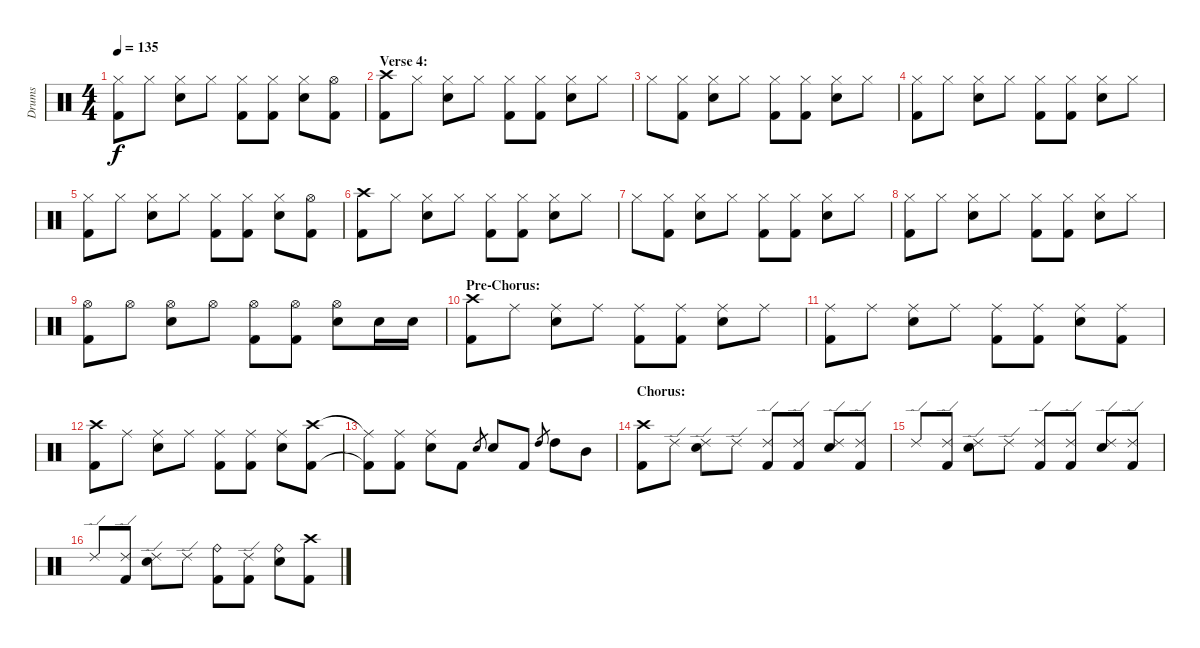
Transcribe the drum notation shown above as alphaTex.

\track ("Drums" "Drums") {instrument percussion}
\staff {score}
\articulation defaults
\ts (4 4)
\tempo 135
\clef neutral
\ks c
("Hi-Hat (closed)" "Kick (hit) 2").8{dy f} "Hi-Hat (closed)".8 ("Hi-Hat (closed)" "Electric Snare (hit)").8 "Hi-Hat (closed)".8 ("Hi-Hat (closed)" "Kick (hit) 2").8 ("Hi-Hat (closed)" "Kick (hit) 2").8 ("Hi-Hat (closed)" "Electric Snare (hit)").8 ("Hi-Hat (open)" "Kick (hit) 2").8 |
\section ("" "Verse 4:")
("Crash high (hit)" "Kick (hit) 2").8 "Hi-Hat (closed)".8 ("Hi-Hat (closed)" "Electric Snare (hit)").8 "Hi-Hat (closed)".8 ("Hi-Hat (closed)" "Kick (hit) 2").8 ("Hi-Hat (closed)" "Kick (hit) 2").8 ("Hi-Hat (closed)" "Electric Snare (hit)").8 "Hi-Hat (closed)".8 |
"Hi-Hat (closed)".8 ("Hi-Hat (closed)" "Kick (hit) 2").8 ("Hi-Hat (closed)" "Electric Snare (hit)").8 "Hi-Hat (closed)".8 ("Hi-Hat (closed)" "Kick (hit) 2").8 ("Hi-Hat (closed)" "Kick (hit) 2").8 ("Hi-Hat (closed)" "Electric Snare (hit)").8 "Hi-Hat (closed)".8 |
("Hi-Hat (closed)" "Kick (hit) 2").8 "Hi-Hat (closed)".8 ("Hi-Hat (closed)" "Electric Snare (hit)").8 "Hi-Hat (closed)".8 ("Hi-Hat (closed)" "Kick (hit) 2").8 ("Hi-Hat (closed)" "Kick (hit) 2").8 ("Hi-Hat (closed)" "Electric Snare (hit)").8 "Hi-Hat (closed)".8 |
("Hi-Hat (closed)" "Kick (hit) 2").8 "Hi-Hat (closed)".8 ("Hi-Hat (closed)" "Electric Snare (hit)").8 "Hi-Hat (closed)".8 ("Hi-Hat (closed)" "Kick (hit) 2").8 ("Hi-Hat (closed)" "Kick (hit) 2").8 ("Hi-Hat (closed)" "Electric Snare (hit)").8 ("Hi-Hat (open)" "Kick (hit) 2").8 |
("Crash high (hit)" "Kick (hit) 2").8 "Hi-Hat (closed)".8 ("Hi-Hat (closed)" "Electric Snare (hit)").8 "Hi-Hat (closed)".8 ("Hi-Hat (closed)" "Kick (hit) 2").8 ("Hi-Hat (closed)" "Kick (hit) 2").8 ("Hi-Hat (closed)" "Electric Snare (hit)").8 "Hi-Hat (closed)".8 |
"Hi-Hat (closed)".8 ("Hi-Hat (closed)" "Kick (hit) 2").8 ("Hi-Hat (closed)" "Electric Snare (hit)").8 "Hi-Hat (closed)".8 ("Hi-Hat (closed)" "Kick (hit) 2").8 ("Hi-Hat (closed)" "Kick (hit) 2").8 ("Hi-Hat (closed)" "Electric Snare (hit)").8 "Hi-Hat (closed)".8 |
("Hi-Hat (closed)" "Kick (hit) 2").8 "Hi-Hat (closed)".8 ("Hi-Hat (closed)" "Electric Snare (hit)").8 "Hi-Hat (closed)".8 ("Hi-Hat (closed)" "Kick (hit) 2").8 ("Hi-Hat (closed)" "Kick (hit) 2").8 ("Hi-Hat (closed)" "Electric Snare (hit)").8 "Hi-Hat (closed)".8 |
("Hi-Hat (open)" "Kick (hit) 2").8 "Hi-Hat (open)".8 ("Hi-Hat (open)" "Electric Snare (hit)").8 "Hi-Hat (open)".8 ("Hi-Hat (open)" "Kick (hit) 2").8 ("Hi-Hat (open)" "Kick (hit) 2").8 ("Hi-Hat (open)" "Electric Snare (hit)").8 "Electric Snare (hit)".16 "Electric Snare (hit)".16 |
\section ("" "Pre-Chorus:")
("Crash high (hit)" "Kick (hit) 2").8 "Ride (middle)".8 ("Ride (middle)" "Electric Snare (hit)").8 "Ride (middle)".8 ("Ride (middle)" "Kick (hit) 2").8 ("Ride (middle)" "Kick (hit) 2").8 ("Ride (middle)" "Electric Snare (hit)").8 "Ride (middle)".8 |
("Ride (middle)" "Kick (hit) 2").8 "Ride (middle)".8 ("Ride (middle)" "Electric Snare (hit)").8 "Ride (middle)".8 ("Ride (middle)" "Kick (hit) 2").8 ("Ride (middle)" "Kick (hit) 2").8 ("Ride (middle)" "Electric Snare (hit)").8 ("Ride (middle)" "Kick (hit) 2").8 |
("Crash high (hit)" "Kick (hit) 2").8 "Ride (middle)".8 ("Ride (middle)" "Electric Snare (hit)").8 "Ride (middle)".8 ("Ride (middle)" "Kick (hit) 2").8 ("Ride (middle)" "Kick (hit) 2").8 ("Ride (middle)" "Electric Snare (hit)").8 ("Crash high (hit)" "Kick (hit) 2").8 |
("Ride (middle)"{t} "Kick (hit) 2"{t}).8 ("Ride (middle)" "Kick (hit) 2").8 ("Ride (middle)" "Electric Snare (hit)").8 "Kick (hit) 2".8 "Electric Snare (hit)".8{gr} "Electric Snare (hit)".8 "Kick (hit) 2".8 "High Tom (hit)".8{gr} "High Tom (hit)".8 "Mid Tom (hit)".8 |
\section ("" "Chorus:")
("Crash high (hit)" "Kick (hit) 2").8 "Ride (edge) 2".8 ("Ride (edge) 2" "Electric Snare (hit)").8 "Ride (edge) 2".8 ("Ride (edge) 2" "Kick (hit) 2").8 ("Ride (edge) 2" "Kick (hit) 2").8 ("Ride (edge) 2" "Electric Snare (hit)").8 ("Ride (edge) 2" "Kick (hit) 2").8 |
"Ride (edge) 2".8 ("Ride (edge) 2" "Kick (hit) 2").8 ("Ride (edge) 2" "Electric Snare (hit)").8 "Ride (edge) 2".8 ("Ride (edge) 2" "Kick (hit) 2").8 ("Ride (edge) 2" "Kick (hit) 2").8 ("Ride (edge) 2" "Electric Snare (hit)").8 ("Ride (edge) 2" "Kick (hit) 2").8 |
"Ride (edge) 2".8 ("Ride (edge) 2" "Kick (hit) 2").8 ("Ride (edge) 2" "Electric Snare (hit)").8 "Ride (edge) 2".8 ("Ride (bell)" "Kick (hit) 2").8 ("Ride (edge) 2" "Kick (hit) 2").8 ("Ride (bell)" "Electric Snare (hit)").8 ("Crash high (hit)" "Kick (hit) 2").8
